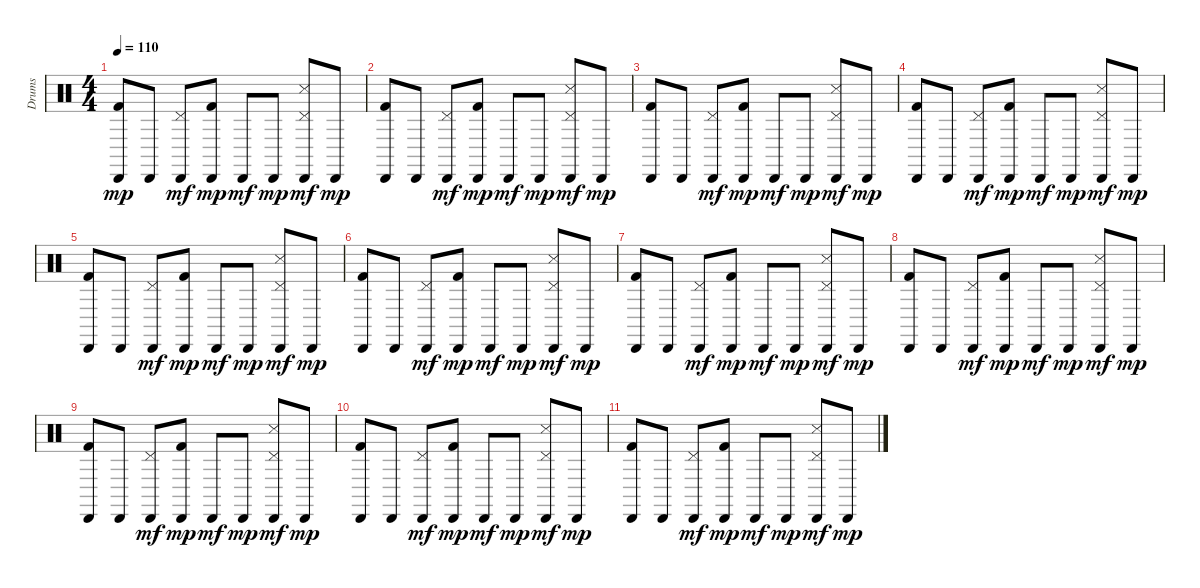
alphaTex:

\track ("Drums" "Drums") {instrument percussion}
\staff {score}
\articulation defaults
\ts (4 4)
\tempo 110
\clef neutral
\ks c
("Cabasa (hit)" "Kick (hit) 2").8{dy mp} "Cabasa (hit)".8 ("Cabasa (hit)" "Pedal Hi-Hat (hit)").8{dy mf} ("Cabasa (hit)" "Kick (hit) 2").8{dy mp} "Cabasa (hit)".8{dy mf} "Cabasa (hit)".8{dy mp} ("Cabasa (hit)" "Pedal Hi-Hat (hit)" "Snare (side stick) 3").8{dy mf} "Cabasa (hit)".8{dy mp} |
("Cabasa (hit)" "Kick (hit) 2").8 "Cabasa (hit)".8 ("Cabasa (hit)" "Pedal Hi-Hat (hit)").8{dy mf} ("Cabasa (hit)" "Kick (hit) 2").8{dy mp} "Cabasa (hit)".8{dy mf} "Cabasa (hit)".8{dy mp} ("Cabasa (hit)" "Pedal Hi-Hat (hit)" "Snare (side stick) 3").8{dy mf} "Cabasa (hit)".8{dy mp} |
("Cabasa (hit)" "Kick (hit) 2").8 "Cabasa (hit)".8 ("Cabasa (hit)" "Pedal Hi-Hat (hit)").8{dy mf} ("Cabasa (hit)" "Kick (hit) 2").8{dy mp} "Cabasa (hit)".8{dy mf} "Cabasa (hit)".8{dy mp} ("Cabasa (hit)" "Pedal Hi-Hat (hit)" "Snare (side stick) 3").8{dy mf} "Cabasa (hit)".8{dy mp} |
("Cabasa (hit)" "Kick (hit) 2").8 "Cabasa (hit)".8 ("Cabasa (hit)" "Pedal Hi-Hat (hit)").8{dy mf} ("Cabasa (hit)" "Kick (hit) 2").8{dy mp} "Cabasa (hit)".8{dy mf} "Cabasa (hit)".8{dy mp} ("Cabasa (hit)" "Pedal Hi-Hat (hit)" "Snare (side stick) 3").8{dy mf} "Cabasa (hit)".8{dy mp} |
("Cabasa (hit)" "Kick (hit) 2").8 "Cabasa (hit)".8 ("Cabasa (hit)" "Pedal Hi-Hat (hit)").8{dy mf} ("Cabasa (hit)" "Kick (hit) 2").8{dy mp} "Cabasa (hit)".8{dy mf} "Cabasa (hit)".8{dy mp} ("Cabasa (hit)" "Pedal Hi-Hat (hit)" "Snare (side stick) 3").8{dy mf} "Cabasa (hit)".8{dy mp} |
("Cabasa (hit)" "Kick (hit) 2").8 "Cabasa (hit)".8 ("Cabasa (hit)" "Pedal Hi-Hat (hit)").8{dy mf} ("Cabasa (hit)" "Kick (hit) 2").8{dy mp} "Cabasa (hit)".8{dy mf} "Cabasa (hit)".8{dy mp} ("Cabasa (hit)" "Pedal Hi-Hat (hit)" "Snare (side stick) 3").8{dy mf} "Cabasa (hit)".8{dy mp} |
("Cabasa (hit)" "Kick (hit) 2").8 "Cabasa (hit)".8 ("Cabasa (hit)" "Pedal Hi-Hat (hit)").8{dy mf} ("Cabasa (hit)" "Kick (hit) 2").8{dy mp} "Cabasa (hit)".8{dy mf} "Cabasa (hit)".8{dy mp} ("Cabasa (hit)" "Pedal Hi-Hat (hit)" "Snare (side stick) 3").8{dy mf} "Cabasa (hit)".8{dy mp} |
("Cabasa (hit)" "Kick (hit) 2").8 "Cabasa (hit)".8 ("Cabasa (hit)" "Pedal Hi-Hat (hit)").8{dy mf} ("Cabasa (hit)" "Kick (hit) 2").8{dy mp} "Cabasa (hit)".8{dy mf} "Cabasa (hit)".8{dy mp} ("Cabasa (hit)" "Pedal Hi-Hat (hit)" "Snare (side stick) 3").8{dy mf} "Cabasa (hit)".8{dy mp} |
("Cabasa (hit)" "Kick (hit) 2").8 "Cabasa (hit)".8 ("Cabasa (hit)" "Pedal Hi-Hat (hit)").8{dy mf} ("Cabasa (hit)" "Kick (hit) 2").8{dy mp} "Cabasa (hit)".8{dy mf} "Cabasa (hit)".8{dy mp} ("Cabasa (hit)" "Pedal Hi-Hat (hit)" "Snare (side stick) 3").8{dy mf} "Cabasa (hit)".8{dy mp} |
("Cabasa (hit)" "Kick (hit) 2").8 "Cabasa (hit)".8 ("Cabasa (hit)" "Pedal Hi-Hat (hit)").8{dy mf} ("Cabasa (hit)" "Kick (hit) 2").8{dy mp} "Cabasa (hit)".8{dy mf} "Cabasa (hit)".8{dy mp} ("Cabasa (hit)" "Pedal Hi-Hat (hit)" "Snare (side stick) 3").8{dy mf} "Cabasa (hit)".8{dy mp} |
("Cabasa (hit)" "Kick (hit) 2").8 "Cabasa (hit)".8 ("Cabasa (hit)" "Pedal Hi-Hat (hit)").8{dy mf} ("Cabasa (hit)" "Kick (hit) 2").8{dy mp} "Cabasa (hit)".8{dy mf} "Cabasa (hit)".8{dy mp} ("Cabasa (hit)" "Pedal Hi-Hat (hit)" "Snare (side stick) 3").8{dy mf} "Cabasa (hit)".8{dy mp}
